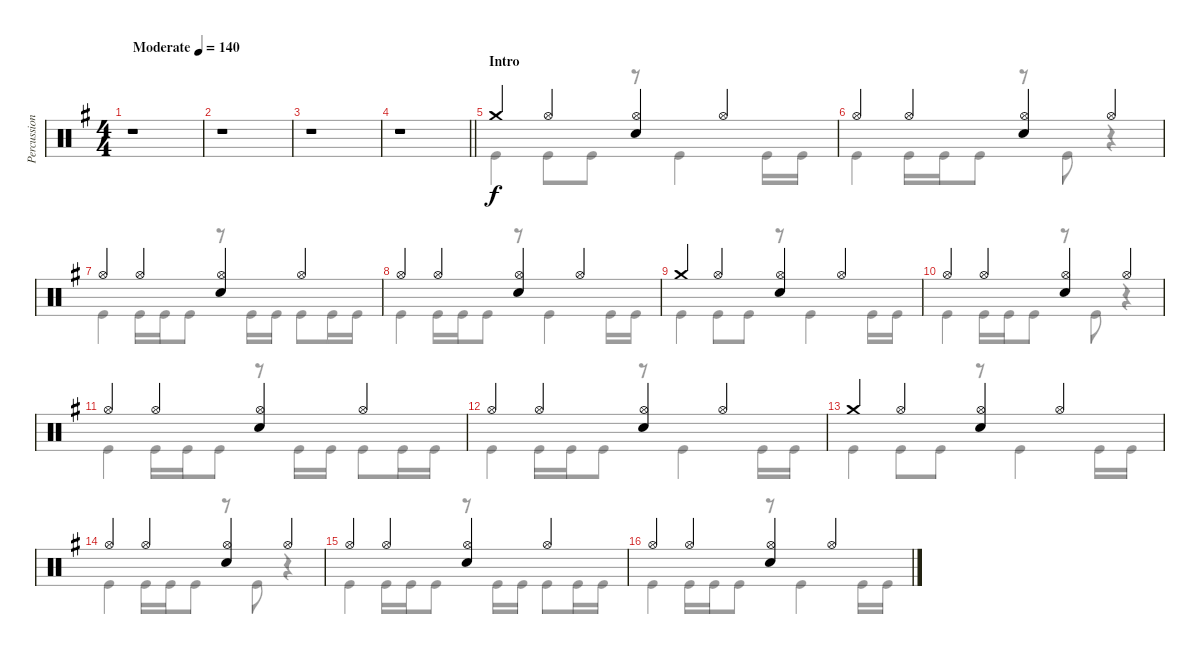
\track ("Percussion" "Percussion") {instrument percussion}
\staff {score}
\articulation defaults
\voice
\ts (4 4)
\tempo (140 "Moderate")
\clef neutral
\ks eminor
r.1{dy f} |
r.1 |
r.1 |
\barLineRight lightlight
r.1 |
\section ("" "Intro")
"Crash medium (hit)".4 "Hi-Hat (open)".4 ("Hi-Hat (open)" "Electric Snare (hit)").4 "Hi-Hat (open)".4 |
"Hi-Hat (open)".4 "Hi-Hat (open)".4 ("Hi-Hat (open)" "Electric Snare (hit)").4 "Hi-Hat (open)".4 |
"Hi-Hat (open)".4 "Hi-Hat (open)".4 ("Hi-Hat (open)" "Electric Snare (hit)").4 "Hi-Hat (open)".4 |
"Hi-Hat (open)".4 "Hi-Hat (open)".4 ("Hi-Hat (open)" "Electric Snare (hit)").4 "Hi-Hat (open)".4 |
"Crash medium (hit)".4 "Hi-Hat (open)".4 ("Hi-Hat (open)" "Electric Snare (hit)").4 "Hi-Hat (open)".4 |
"Hi-Hat (open)".4 "Hi-Hat (open)".4 ("Hi-Hat (open)" "Electric Snare (hit)").4 "Hi-Hat (open)".4 |
"Hi-Hat (open)".4 "Hi-Hat (open)".4 ("Hi-Hat (open)" "Electric Snare (hit)").4 "Hi-Hat (open)".4 |
"Hi-Hat (open)".4 "Hi-Hat (open)".4 ("Hi-Hat (open)" "Electric Snare (hit)").4 "Hi-Hat (open)".4 |
"Crash medium (hit)".4 "Hi-Hat (open)".4 ("Hi-Hat (open)" "Electric Snare (hit)").4 "Hi-Hat (open)".4 |
"Hi-Hat (open)".4 "Hi-Hat (open)".4 ("Hi-Hat (open)" "Electric Snare (hit)").4 "Hi-Hat (open)".4 |
"Hi-Hat (open)".4 "Hi-Hat (open)".4 ("Hi-Hat (open)" "Electric Snare (hit)").4 "Hi-Hat (open)".4 |
"Hi-Hat (open)".4 "Hi-Hat (open)".4 ("Hi-Hat (open)" "Electric Snare (hit)").4 "Hi-Hat (open)".4
\voice
\clef neutral
\ottava regular
\simile none
\ks eminor
|
|
|
\barLineRight lightlight
|
"Kick (hit)".4 "Kick (hit)".8 "Kick (hit)".8 r.8 "Kick (hit)".4 "Kick (hit)".16 "Kick (hit)".16 |
"Kick (hit)".4 "Kick (hit)".16 "Kick (hit)".16 "Kick (hit)".8 r.8 "Kick (hit)".8 r.4 |
"Kick (hit)".4 "Kick (hit)".16 "Kick (hit)".16 "Kick (hit)".8 r.8 "Kick (hit)".16 "Kick (hit)".16 "Kick (hit)".8 "Kick (hit)".16 "Kick (hit)".16 |
"Kick (hit)".4 "Kick (hit)".16 "Kick (hit)".16 "Kick (hit)".8 r.8 "Kick (hit)".4 "Kick (hit)".16 "Kick (hit)".16 |
"Kick (hit)".4 "Kick (hit)".8 "Kick (hit)".8 r.8 "Kick (hit)".4 "Kick (hit)".16 "Kick (hit)".16 |
"Kick (hit)".4 "Kick (hit)".16 "Kick (hit)".16 "Kick (hit)".8 r.8 "Kick (hit)".8 r.4 |
"Kick (hit)".4 "Kick (hit)".16 "Kick (hit)".16 "Kick (hit)".8 r.8 "Kick (hit)".16 "Kick (hit)".16 "Kick (hit)".8 "Kick (hit)".16 "Kick (hit)".16 |
"Kick (hit)".4 "Kick (hit)".16 "Kick (hit)".16 "Kick (hit)".8 r.8 "Kick (hit)".4 "Kick (hit)".16 "Kick (hit)".16 |
"Kick (hit)".4 "Kick (hit)".8 "Kick (hit)".8 r.8 "Kick (hit)".4 "Kick (hit)".16 "Kick (hit)".16 |
"Kick (hit)".4 "Kick (hit)".16 "Kick (hit)".16 "Kick (hit)".8 r.8 "Kick (hit)".8 r.4 |
"Kick (hit)".4 "Kick (hit)".16 "Kick (hit)".16 "Kick (hit)".8 r.8 "Kick (hit)".16 "Kick (hit)".16 "Kick (hit)".8 "Kick (hit)".16 "Kick (hit)".16 |
"Kick (hit)".4 "Kick (hit)".16 "Kick (hit)".16 "Kick (hit)".8 r.8 "Kick (hit)".4 "Kick (hit)".16 "Kick (hit)".16
